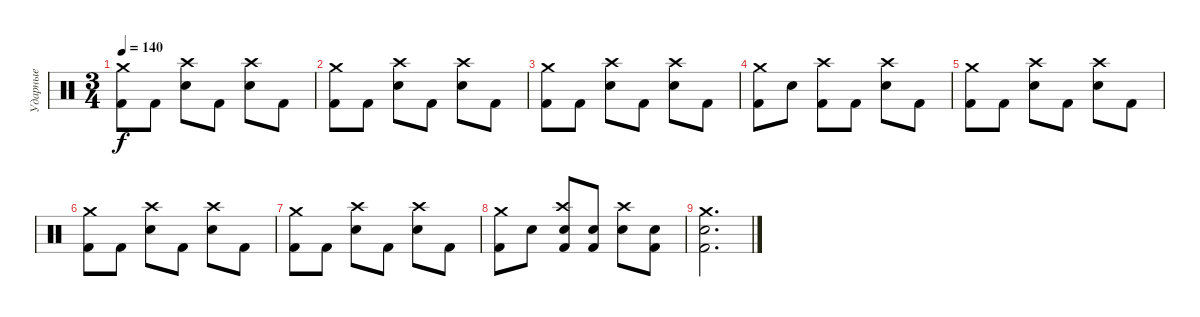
\track ("Ударные" "Ударные") {instrument percussion}
\staff {score}
\articulation defaults
\ts (3 4)
\tempo 140
\clef neutral
\ks c
("Crash medium (hit)" "Kick (hit) 2").8{dy f} "Kick (hit) 2".8 ("Crash high (hit)" "Electric Snare (hit)").8 "Kick (hit) 2".8 ("Crash high (hit)" "Electric Snare (hit)").8 "Kick (hit) 2".8 |
("Crash medium (hit)" "Kick (hit) 2").8 "Kick (hit) 2".8 ("Crash high (hit)" "Electric Snare (hit)").8 "Kick (hit) 2".8 ("Crash high (hit)" "Electric Snare (hit)").8 "Kick (hit) 2".8 |
("Crash medium (hit)" "Kick (hit) 2").8 "Kick (hit) 2".8 ("Crash high (hit)" "Electric Snare (hit)").8 "Kick (hit) 2".8 ("Crash high (hit)" "Electric Snare (hit)").8 "Kick (hit) 2".8 |
("Crash medium (hit)" "Kick (hit) 2").8 "Electric Snare (hit)".8 ("Crash high (hit)" "Kick (hit) 2").8 "Kick (hit) 2".8 ("Crash high (hit)" "Electric Snare (hit)").8 "Kick (hit) 2".8 |
("Crash medium (hit)" "Kick (hit) 2").8 "Kick (hit) 2".8 ("Crash high (hit)" "Electric Snare (hit)").8 "Kick (hit) 2".8 ("Crash high (hit)" "Electric Snare (hit)").8 "Kick (hit) 2".8 |
("Crash medium (hit)" "Kick (hit) 2").8 "Kick (hit) 2".8 ("Crash high (hit)" "Electric Snare (hit)").8 "Kick (hit) 2".8 ("Crash high (hit)" "Electric Snare (hit)").8 "Kick (hit) 2".8 |
("Crash medium (hit)" "Kick (hit) 2").8 "Kick (hit) 2".8 ("Crash high (hit)" "Electric Snare (hit)").8 "Kick (hit) 2".8 ("Crash high (hit)" "Electric Snare (hit)").8 "Kick (hit) 2".8 |
("Crash medium (hit)" "Kick (hit) 2").8 "Electric Snare (hit)".8 ("Crash high (hit)" "Electric Snare (hit)" "Kick (hit) 2").8 ("Electric Snare (hit)" "Kick (hit) 2").8 ("Crash high (hit)" "Electric Snare (hit)").8 ("Electric Snare (hit)" "Kick (hit) 2").8 |
("Crash medium (hit)" "Electric Snare (hit)" "Kick (hit) 2").2{d}
